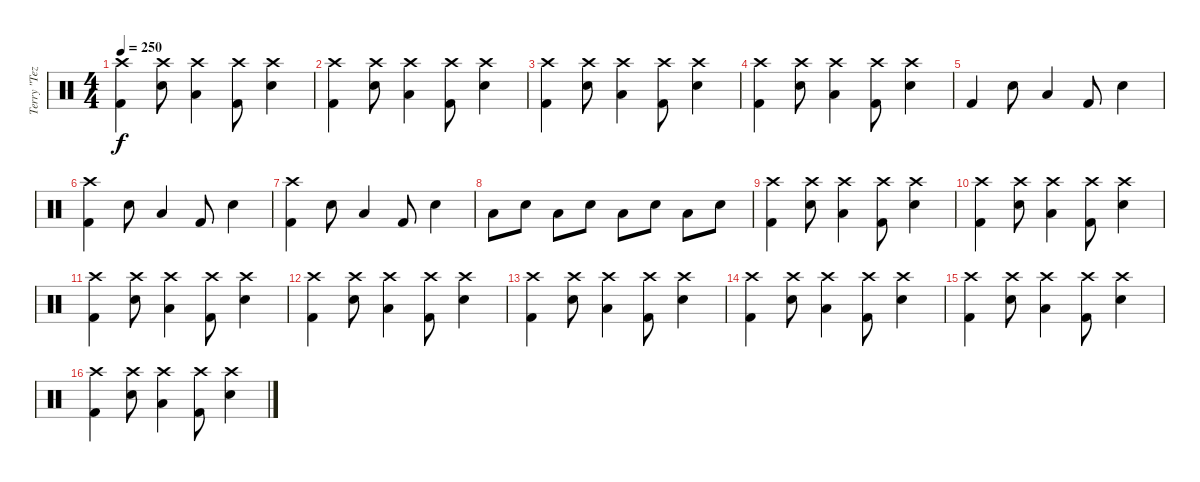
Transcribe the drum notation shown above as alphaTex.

\track ("Terry \"Tezz\" Roberts" "Terry \"Tez") {instrument percussion}
\staff {score}
\articulation defaults
\ts (4 4)
\tempo 250
\clef neutral
\ks c
("Kick (hit) 2" "Crash high (hit)").4{dy f} ("Snare (hit) 2" "Crash high (hit)").8 ("Low Tom (hit)" "Crash high (hit)").4 ("Kick (hit) 2" "Crash high (hit)").8 ("Snare (hit) 2" "Crash high (hit)").4 |
("Kick (hit) 2" "Crash high (hit)").4 ("Snare (hit) 2" "Crash high (hit)").8 ("Low Tom (hit)" "Crash high (hit)").4 ("Kick (hit) 2" "Crash high (hit)").8 ("Snare (hit) 2" "Crash high (hit)").4 |
("Kick (hit) 2" "Crash high (hit)").4 ("Snare (hit) 2" "Crash high (hit)").8 ("Low Tom (hit)" "Crash high (hit)").4 ("Kick (hit) 2" "Crash high (hit)").8 ("Snare (hit) 2" "Crash high (hit)").4 |
("Kick (hit) 2" "Crash high (hit)").4 ("Snare (hit) 2" "Crash high (hit)").8 ("Low Tom (hit)" "Crash high (hit)").4 ("Kick (hit) 2" "Crash high (hit)").8 ("Snare (hit) 2" "Crash high (hit)").4 |
"Kick (hit) 2".4 "Snare (hit) 2".8 "Low Tom (hit)".4 "Kick (hit) 2".8 "Snare (hit) 2".4 |
("Kick (hit) 2" "Crash high (hit)").4 "Snare (hit) 2".8 "Low Tom (hit)".4 "Kick (hit) 2".8 "Snare (hit) 2".4 |
("Kick (hit) 2" "Crash high (hit)").4 "Snare (hit) 2".8 "Low Tom (hit)".4 "Kick (hit) 2".8 "Snare (hit) 2".4 |
"Low Tom (hit)".8 "Snare (hit) 2".8 "Low Tom (hit)".8 "Snare (hit) 2".8 "Low Tom (hit)".8 "Snare (hit) 2".8 "Low Tom (hit)".8 "Snare (hit) 2".8 |
("Kick (hit) 2" "Crash high (hit)").4 ("Snare (hit) 2" "Crash high (hit)").8 ("Low Tom (hit)" "Crash high (hit)").4 ("Kick (hit) 2" "Crash high (hit)").8 ("Snare (hit) 2" "Crash high (hit)").4 |
("Kick (hit) 2" "Crash high (hit)").4 ("Snare (hit) 2" "Crash high (hit)").8 ("Low Tom (hit)" "Crash high (hit)").4 ("Kick (hit) 2" "Crash high (hit)").8 ("Snare (hit) 2" "Crash high (hit)").4 |
("Kick (hit) 2" "Crash high (hit)").4 ("Snare (hit) 2" "Crash high (hit)").8 ("Low Tom (hit)" "Crash high (hit)").4 ("Kick (hit) 2" "Crash high (hit)").8 ("Snare (hit) 2" "Crash high (hit)").4 |
("Kick (hit) 2" "Crash high (hit)").4 ("Snare (hit) 2" "Crash high (hit)").8 ("Low Tom (hit)" "Crash high (hit)").4 ("Kick (hit) 2" "Crash high (hit)").8 ("Snare (hit) 2" "Crash high (hit)").4 |
("Kick (hit) 2" "Crash high (hit)").4 ("Snare (hit) 2" "Crash high (hit)").8 ("Low Tom (hit)" "Crash high (hit)").4 ("Kick (hit) 2" "Crash high (hit)").8 ("Snare (hit) 2" "Crash high (hit)").4 |
("Kick (hit) 2" "Crash high (hit)").4 ("Snare (hit) 2" "Crash high (hit)").8 ("Low Tom (hit)" "Crash high (hit)").4 ("Kick (hit) 2" "Crash high (hit)").8 ("Snare (hit) 2" "Crash high (hit)").4 |
("Kick (hit) 2" "Crash high (hit)").4 ("Snare (hit) 2" "Crash high (hit)").8 ("Low Tom (hit)" "Crash high (hit)").4 ("Kick (hit) 2" "Crash high (hit)").8 ("Snare (hit) 2" "Crash high (hit)").4 |
("Kick (hit) 2" "Crash high (hit)").4 ("Snare (hit) 2" "Crash high (hit)").8 ("Low Tom (hit)" "Crash high (hit)").4 ("Kick (hit) 2" "Crash high (hit)").8 ("Snare (hit) 2" "Crash high (hit)").4
